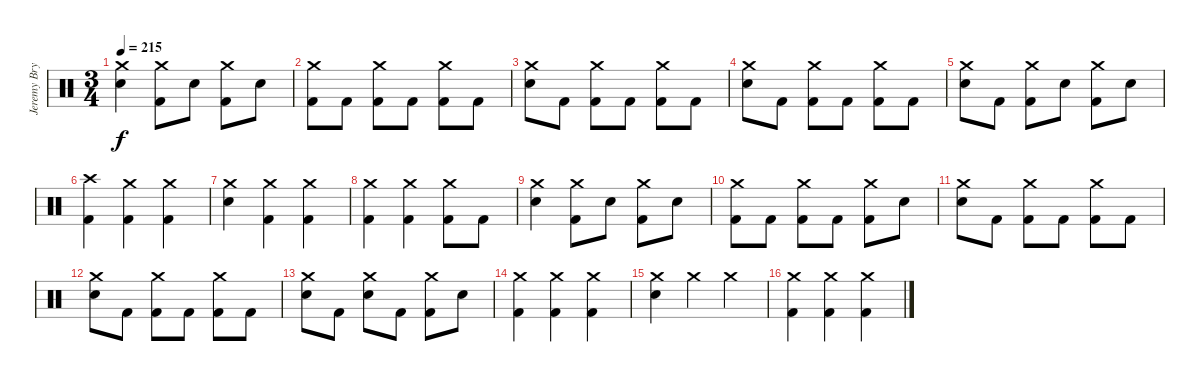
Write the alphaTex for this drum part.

\track ("Jeremy Bryan - Drums" "Jeremy Bry") {instrument percussion}
\staff {score}
\articulation defaults
\ts (3 4)
\tempo 215
\clef neutral
\ks c
("Crash medium (hit)" "Electric Snare (hit)").4{dy f} ("Crash medium (hit)" "Kick (hit) 2").8 "Electric Snare (hit)".8 ("Crash medium (hit)" "Kick (hit) 2").8 "Electric Snare (hit)".8 |
("Crash medium (hit)" "Kick (hit) 2").8 "Kick (hit) 2".8 ("Crash medium (hit)" "Kick (hit) 2").8 "Kick (hit) 2".8 ("Crash medium (hit)" "Kick (hit) 2").8 "Kick (hit) 2".8 |
("Crash medium (hit)" "Electric Snare (hit)").8 "Kick (hit) 2".8 ("Crash medium (hit)" "Kick (hit) 2").8 "Kick (hit) 2".8 ("Crash medium (hit)" "Kick (hit) 2").8 "Kick (hit) 2".8 |
("Crash medium (hit)" "Electric Snare (hit)").8 "Kick (hit) 2".8 ("Crash medium (hit)" "Kick (hit) 2").8 "Kick (hit) 2".8 ("Crash medium (hit)" "Kick (hit) 2").8 "Kick (hit) 2".8 |
("Crash medium (hit)" "Electric Snare (hit)").8 "Kick (hit) 2".8 ("Crash medium (hit)" "Kick (hit) 2").8 "Electric Snare (hit)".8 ("Crash medium (hit)" "Kick (hit) 2").8 "Electric Snare (hit)".8 |
("Crash high (hit)" "Kick (hit) 2").4 ("Crash medium (hit)" "Kick (hit) 2").4 ("Crash medium (hit)" "Kick (hit) 2").4 |
("Crash medium (hit)" "Electric Snare (hit)").4 ("Crash medium (hit)" "Kick (hit) 2").4 ("Crash medium (hit)" "Kick (hit) 2").4 |
("Crash medium (hit)" "Kick (hit) 2").4 ("Crash medium (hit)" "Kick (hit) 2").4 ("Crash medium (hit)" "Kick (hit) 2").8 "Kick (hit) 2".8 |
("Crash medium (hit)" "Electric Snare (hit)").4 ("Crash medium (hit)" "Kick (hit) 2").8 "Electric Snare (hit)".8 ("Crash medium (hit)" "Kick (hit) 2").8 "Electric Snare (hit)".8 |
("Crash medium (hit)" "Kick (hit) 2").8 "Kick (hit) 2".8 ("Crash medium (hit)" "Kick (hit) 2").8 "Kick (hit) 2".8 ("Crash medium (hit)" "Kick (hit) 2").8 "Electric Snare (hit)".8 |
("Crash medium (hit)" "Electric Snare (hit)").8 "Kick (hit) 2".8 ("Crash medium (hit)" "Kick (hit) 2").8 "Kick (hit) 2".8 ("Crash medium (hit)" "Kick (hit) 2").8 "Kick (hit) 2".8 |
("Crash medium (hit)" "Electric Snare (hit)").8 "Kick (hit) 2".8 ("Crash medium (hit)" "Kick (hit) 2").8 "Kick (hit) 2".8 ("Crash medium (hit)" "Kick (hit) 2").8 "Kick (hit) 2".8 |
("Crash medium (hit)" "Electric Snare (hit)").8 "Kick (hit) 2".8 ("Crash medium (hit)" "Electric Snare (hit)").8 "Kick (hit) 2".8 ("Crash medium (hit)" "Kick (hit) 2").8 "Electric Snare (hit)".8 |
("Crash medium (hit)" "Kick (hit) 2").4 ("Crash medium (hit)" "Kick (hit) 2").4 ("Crash medium (hit)" "Kick (hit) 2").4 |
("Crash medium (hit)" "Electric Snare (hit)").4 "Crash medium (hit)".4 "Crash medium (hit)".4 |
("Crash medium (hit)" "Kick (hit) 2").4 ("Crash medium (hit)" "Kick (hit) 2").4 ("Crash medium (hit)" "Kick (hit) 2").4
